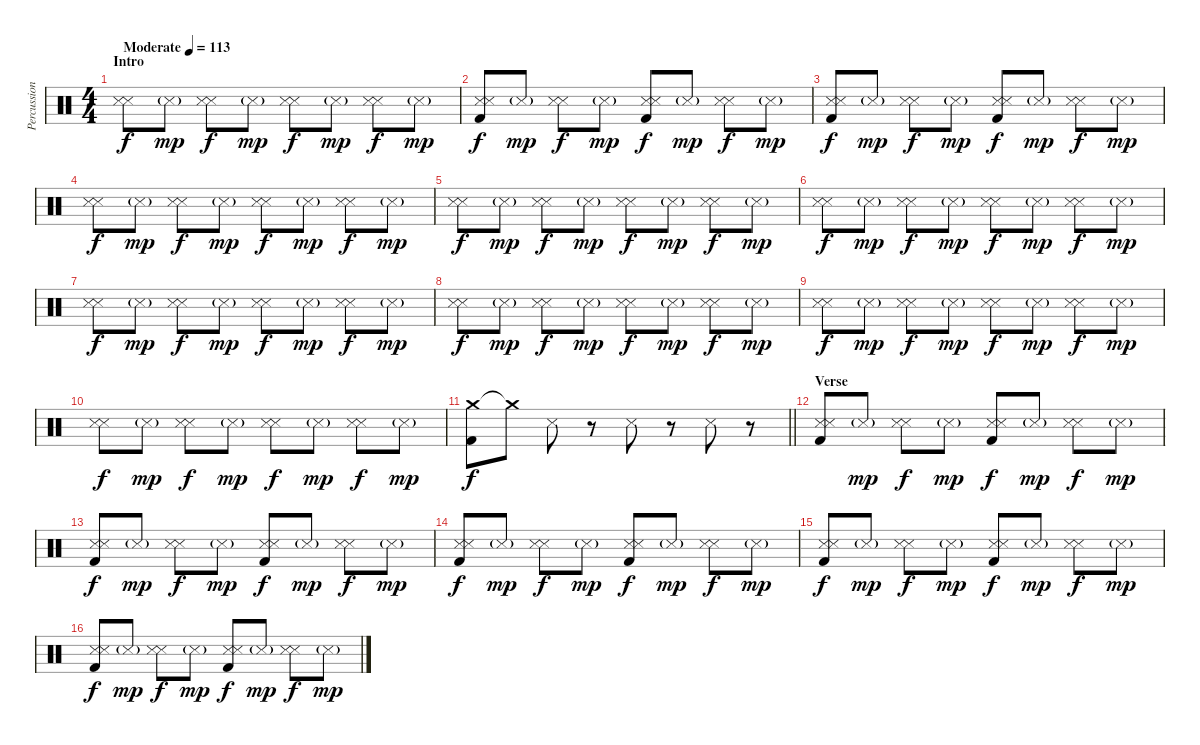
\track ("Percussion" "Percussion") {instrument percussion}
\staff {score}
\articulation defaults
\ts (4 4)
\section ("" "Intro")
\tempo (113 "Moderate")
\clef neutral
\ks c
("Snare (side stick) 3" "Snare (side stick) 3").8{dy f} "Snare (side stick) 3"{g}.8{dy mp} ("Snare (side stick) 3" "Snare (side stick) 3").8{dy f} "Snare (side stick) 3"{g}.8{dy mp} ("Snare (side stick) 3" "Snare (side stick) 3").8{dy f} "Snare (side stick) 3"{g}.8{dy mp} ("Snare (side stick) 3" "Snare (side stick) 3").8{dy f} "Snare (side stick) 3"{g}.8{dy mp} |
("Snare (side stick) 3" "Snare (side stick) 3" "Kick (hit) 2").8{dy f} "Snare (side stick) 3"{g}.8{dy mp} ("Snare (side stick) 3" "Snare (side stick) 3").8{dy f} "Snare (side stick) 3"{g}.8{dy mp} ("Snare (side stick) 3" "Snare (side stick) 3" "Kick (hit) 2").8{dy f} "Snare (side stick) 3"{g}.8{dy mp} ("Snare (side stick) 3" "Snare (side stick) 3").8{dy f} "Snare (side stick) 3"{g}.8{dy mp} |
("Snare (side stick) 3" "Snare (side stick) 3" "Kick (hit) 2").8{dy f} "Snare (side stick) 3"{g}.8{dy mp} ("Snare (side stick) 3" "Snare (side stick) 3").8{dy f} "Snare (side stick) 3"{g}.8{dy mp} ("Snare (side stick) 3" "Snare (side stick) 3" "Kick (hit) 2").8{dy f} "Snare (side stick) 3"{g}.8{dy mp} ("Snare (side stick) 3" "Snare (side stick) 3").8{dy f} "Snare (side stick) 3"{g}.8{dy mp} |
("Snare (side stick) 3" "Snare (side stick) 3").8{dy f} "Snare (side stick) 3"{g}.8{dy mp} ("Snare (side stick) 3" "Snare (side stick) 3").8{dy f} "Snare (side stick) 3"{g}.8{dy mp} ("Snare (side stick) 3" "Snare (side stick) 3").8{dy f} "Snare (side stick) 3"{g}.8{dy mp} ("Snare (side stick) 3" "Snare (side stick) 3").8{dy f} "Snare (side stick) 3"{g}.8{dy mp} |
("Snare (side stick) 3" "Snare (side stick) 3").8{dy f} "Snare (side stick) 3"{g}.8{dy mp} ("Snare (side stick) 3" "Snare (side stick) 3").8{dy f} "Snare (side stick) 3"{g}.8{dy mp} ("Snare (side stick) 3" "Snare (side stick) 3").8{dy f} "Snare (side stick) 3"{g}.8{dy mp} ("Snare (side stick) 3" "Snare (side stick) 3").8{dy f} "Snare (side stick) 3"{g}.8{dy mp} |
("Snare (side stick) 3" "Snare (side stick) 3").8{dy f} "Snare (side stick) 3"{g}.8{dy mp} ("Snare (side stick) 3" "Snare (side stick) 3").8{dy f} "Snare (side stick) 3"{g}.8{dy mp} ("Snare (side stick) 3" "Snare (side stick) 3").8{dy f} "Snare (side stick) 3"{g}.8{dy mp} ("Snare (side stick) 3" "Snare (side stick) 3").8{dy f} "Snare (side stick) 3"{g}.8{dy mp} |
("Snare (side stick) 3" "Snare (side stick) 3").8{dy f} "Snare (side stick) 3"{g}.8{dy mp} ("Snare (side stick) 3" "Snare (side stick) 3").8{dy f} "Snare (side stick) 3"{g}.8{dy mp} ("Snare (side stick) 3" "Snare (side stick) 3").8{dy f} "Snare (side stick) 3"{g}.8{dy mp} ("Snare (side stick) 3" "Snare (side stick) 3").8{dy f} "Snare (side stick) 3"{g}.8{dy mp} |
("Snare (side stick) 3" "Snare (side stick) 3").8{dy f} "Snare (side stick) 3"{g}.8{dy mp} ("Snare (side stick) 3" "Snare (side stick) 3").8{dy f} "Snare (side stick) 3"{g}.8{dy mp} ("Snare (side stick) 3" "Snare (side stick) 3").8{dy f} "Snare (side stick) 3"{g}.8{dy mp} ("Snare (side stick) 3" "Snare (side stick) 3").8{dy f} "Snare (side stick) 3"{g}.8{dy mp} |
("Snare (side stick) 3" "Snare (side stick) 3").8{dy f} "Snare (side stick) 3"{g}.8{dy mp} ("Snare (side stick) 3" "Snare (side stick) 3").8{dy f} "Snare (side stick) 3"{g}.8{dy mp} ("Snare (side stick) 3" "Snare (side stick) 3").8{dy f} "Snare (side stick) 3"{g}.8{dy mp} ("Snare (side stick) 3" "Snare (side stick) 3").8{dy f} "Snare (side stick) 3"{g}.8{dy mp} |
("Snare (side stick) 3" "Snare (side stick) 3").8{dy f} "Snare (side stick) 3"{g}.8{dy mp} ("Snare (side stick) 3" "Snare (side stick) 3").8{dy f} "Snare (side stick) 3"{g}.8{dy mp} ("Snare (side stick) 3" "Snare (side stick) 3").8{dy f} "Snare (side stick) 3"{g}.8{dy mp} ("Snare (side stick) 3" "Snare (side stick) 3").8{dy f} "Snare (side stick) 3"{g}.8{dy mp} |
\barLineRight lightlight
("Crash medium (hit)" "Kick (hit) 2").8{dy f} "Crash medium (hit)"{t}.8 "Snare (side stick) 3".8 r.8 "Snare (side stick) 3".8 r.8 "Snare (side stick) 3".8 r.8 |
\section ("" "Verse")
("Snare (side stick) 3" "Snare (side stick) 3" "Kick (hit) 2").8 "Snare (side stick) 3"{g}.8{dy mp} ("Snare (side stick) 3" "Snare (side stick) 3").8{dy f} "Snare (side stick) 3"{g}.8{dy mp} ("Snare (side stick) 3" "Snare (side stick) 3" "Kick (hit) 2").8{dy f} "Snare (side stick) 3"{g}.8{dy mp} ("Snare (side stick) 3" "Snare (side stick) 3").8{dy f} "Snare (side stick) 3"{g}.8{dy mp} |
("Snare (side stick) 3" "Snare (side stick) 3" "Kick (hit) 2").8{dy f} "Snare (side stick) 3"{g}.8{dy mp} ("Snare (side stick) 3" "Snare (side stick) 3").8{dy f} "Snare (side stick) 3"{g}.8{dy mp} ("Snare (side stick) 3" "Snare (side stick) 3" "Kick (hit) 2").8{dy f} "Snare (side stick) 3"{g}.8{dy mp} ("Snare (side stick) 3" "Snare (side stick) 3").8{dy f} "Snare (side stick) 3"{g}.8{dy mp} |
("Snare (side stick) 3" "Snare (side stick) 3" "Kick (hit) 2").8{dy f} "Snare (side stick) 3"{g}.8{dy mp} ("Snare (side stick) 3" "Snare (side stick) 3").8{dy f} "Snare (side stick) 3"{g}.8{dy mp} ("Snare (side stick) 3" "Snare (side stick) 3" "Kick (hit) 2").8{dy f} "Snare (side stick) 3"{g}.8{dy mp} ("Snare (side stick) 3" "Snare (side stick) 3").8{dy f} "Snare (side stick) 3"{g}.8{dy mp} |
("Snare (side stick) 3" "Snare (side stick) 3" "Kick (hit) 2").8{dy f} "Snare (side stick) 3"{g}.8{dy mp} ("Snare (side stick) 3" "Snare (side stick) 3").8{dy f} "Snare (side stick) 3"{g}.8{dy mp} ("Snare (side stick) 3" "Snare (side stick) 3" "Kick (hit) 2").8{dy f} "Snare (side stick) 3"{g}.8{dy mp} ("Snare (side stick) 3" "Snare (side stick) 3").8{dy f} "Snare (side stick) 3"{g}.8{dy mp} |
("Snare (side stick) 3" "Snare (side stick) 3" "Kick (hit) 2").8{dy f} "Snare (side stick) 3"{g}.8{dy mp} ("Snare (side stick) 3" "Snare (side stick) 3").8{dy f} "Snare (side stick) 3"{g}.8{dy mp} ("Snare (side stick) 3" "Snare (side stick) 3" "Kick (hit) 2").8{dy f} "Snare (side stick) 3"{g}.8{dy mp} ("Snare (side stick) 3" "Snare (side stick) 3").8{dy f} "Snare (side stick) 3"{g}.8{dy mp}
